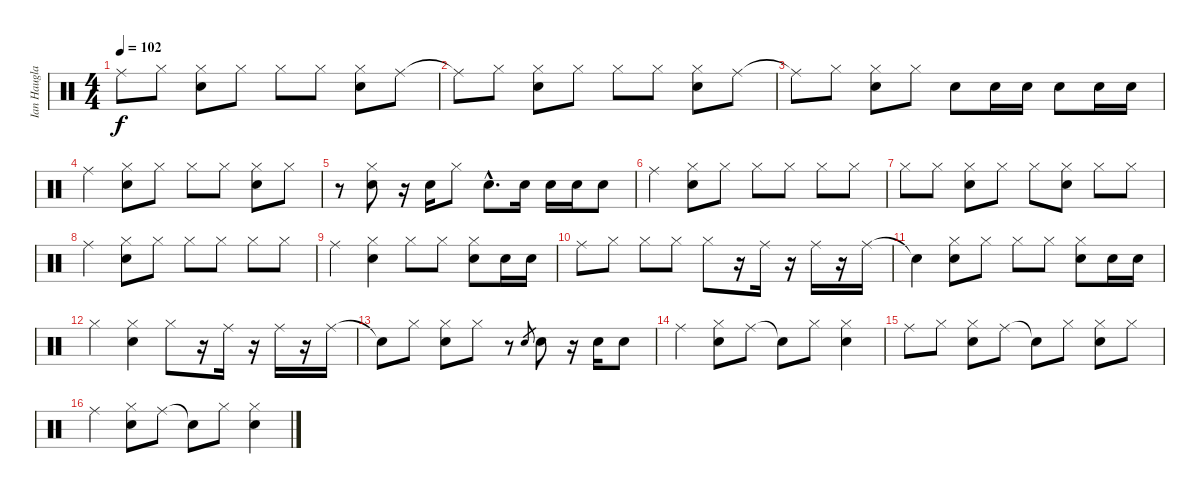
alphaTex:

\track ("Ian Haugland Drums 2" "Ian Haugla") {instrument percussion}
\staff {score}
\articulation defaults
\ts (4 4)
\tempo 102
\clef neutral
\ks c "Ride (middle)"{t}.8{dy f} "Hi-Hat (closed)".8
("Hi-Hat (closed)" "Snare (hit) 2").8 "Hi-Hat (closed)".8 "Hi-Hat (closed)".8 "Hi-Hat (closed)".8 ("Hi-Hat (closed)" "Snare (hit) 2").8 "Ride (middle)".8 |
"Ride (middle)"{t}.8 "Hi-Hat (closed)".8 ("Hi-Hat (closed)" "Snare (hit) 2").8 "Hi-Hat (closed)".8 "Hi-Hat (closed)".8 "Hi-Hat (closed)".8 ("Hi-Hat (closed)" "Snare (hit) 2").8 "Ride (middle)".8 |
"Ride (middle)"{t}.8 "Hi-Hat (closed)".8 ("Hi-Hat (closed)" "Snare (hit) 2").8 "Hi-Hat (closed)".8 "Snare (hit) 2".8 "Snare (hit) 2".16 "Snare (hit) 2".16 "Snare (hit) 2".8 "Snare (hit) 2".16 "Snare (hit) 2".16 |
"Ride (middle)".4 ("Hi-Hat (closed)" "Snare (hit) 2").8 "Hi-Hat (closed)".8 "Hi-Hat (closed)".8 "Hi-Hat (closed)".8 ("Hi-Hat (closed)" "Snare (hit) 2").8 "Hi-Hat (closed)".8 |
r.8 ("Hi-Hat (closed)" "Snare (hit) 2").8 r.16 "Snare (hit) 2".16 "Hi-Hat (closed)".8 "Snare (hit) 2"{hac}.8{d} "Snare (hit) 2".16 "Snare (hit) 2".16 "Snare (hit) 2".16 "Snare (hit) 2".8 |
"Ride (middle)".4 ("Hi-Hat (closed)" "Snare (hit) 2").8 "Hi-Hat (closed)".8 "Hi-Hat (closed)".8 "Hi-Hat (closed)".8 "Hi-Hat (closed)".8 "Hi-Hat (closed)".8 |
"Hi-Hat (closed)".8 "Hi-Hat (closed)".8 ("Hi-Hat (closed)" "Snare (hit) 2").8 "Hi-Hat (closed)".8 "Hi-Hat (closed)".8 ("Hi-Hat (closed)" "Snare (hit) 2").8 "Hi-Hat (closed)".8 "Hi-Hat (closed)".8 |
"Ride (middle)".4 ("Hi-Hat (closed)" "Snare (hit) 2").8 "Hi-Hat (closed)".8 "Hi-Hat (closed)".8 "Hi-Hat (closed)".8 "Hi-Hat (closed)".8 "Hi-Hat (closed)".8 |
"Ride (middle)".4 ("Hi-Hat (closed)" "Snare (hit) 2").4 "Hi-Hat (closed)".8 "Hi-Hat (closed)".8 ("Hi-Hat (closed)" "Snare (hit) 2").8 "Snare (hit) 2".16 "Snare (hit) 2".16 |
"Ride (middle)".8 "Hi-Hat (closed)".8 "Hi-Hat (closed)".8 "Hi-Hat (closed)".8 "Hi-Hat (closed)".8 r.16 "Ride (middle)".16 r.16 "Ride (middle)".16 r.16 "Ride (middle)".16 |
"Snare (hit)"{t}.4 ("Hi-Hat (closed)" "Snare (hit) 2").8 "Hi-Hat (closed)".8 "Hi-Hat (closed)".8 "Hi-Hat (closed)".8 ("Hi-Hat (closed)" "Snare (hit) 2").8 "Snare (hit) 2".16 "Snare (hit) 2".16 |
"Hi-Hat (closed)".4 ("Hi-Hat (closed)" "Snare (hit) 2").4 "Hi-Hat (closed)".8 r.16 "Ride (middle)".16 r.16 "Ride (middle)".16 r.16 "Ride (middle)".16 |
"Snare (hit)"{t}.8 "Hi-Hat (closed)".8 ("Hi-Hat (closed)" "Snare (hit) 2").8 "Hi-Hat (closed)".8 r.8 "Snare (hit) 2".8{gr} "Snare (hit) 2".8 r.16 "Snare (hit) 2".16 "Snare (hit) 2".8 |
"Ride (middle)".4 ("Hi-Hat (closed)" "Snare (hit) 2").8 "Ride (middle)".8 "Snare (hit)"{t}.8 "Hi-Hat (closed)".8 ("Hi-Hat (closed)" "Snare (hit) 2").4 |
"Ride (middle)".8 "Hi-Hat (closed)".8 ("Hi-Hat (closed)" "Snare (hit) 2").8 "Ride (middle)".8 "Snare (hit)"{t}.8 "Hi-Hat (closed)".8 ("Hi-Hat (closed)" "Snare (hit) 2").8 "Hi-Hat (closed)".8 |
"Ride (middle)".4 ("Hi-Hat (closed)" "Snare (hit) 2").8 "Ride (middle)".8 "Snare (hit)"{t}.8 "Hi-Hat (closed)".8 ("Hi-Hat (closed)" "Snare (hit) 2").4
